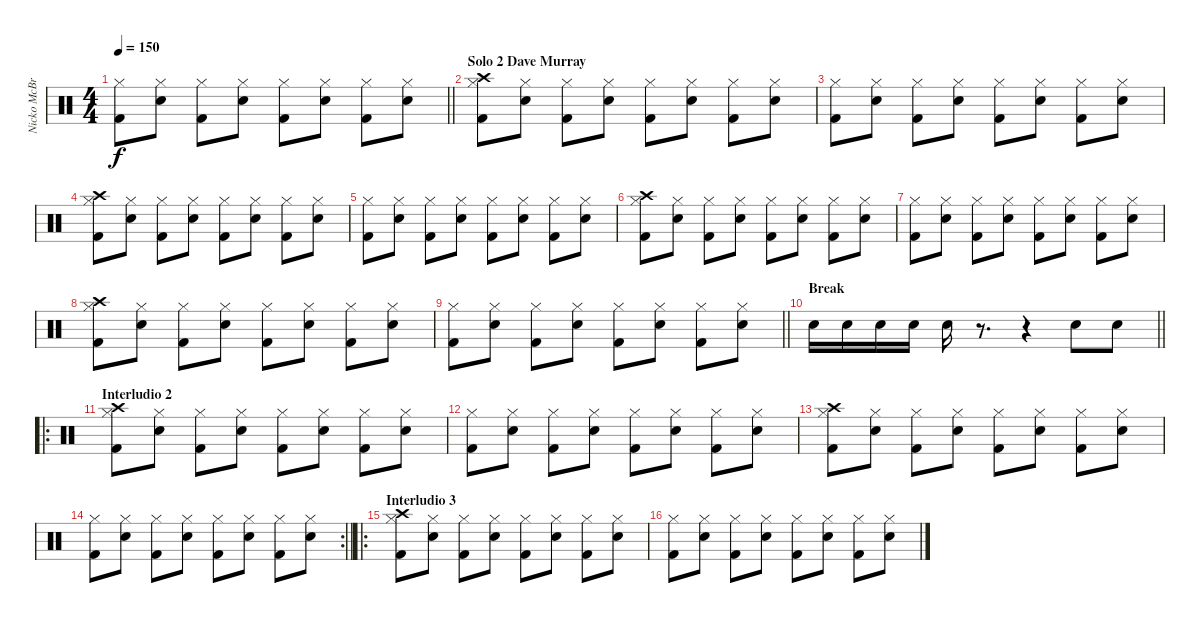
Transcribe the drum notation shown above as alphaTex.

\track ("Nicko McBrain" "Nicko McBr") {instrument percussion}
\staff {score}
\articulation defaults
\ts (4 4)
\tempo 150
\clef neutral
\barLineRight lightlight
\ks c
("Hi-Hat (closed)" "Kick (hit) 2").8{dy f} ("Hi-Hat (closed)" "Snare (hit) 2").8 ("Hi-Hat (closed)" "Kick (hit) 2").8 ("Hi-Hat (closed)" "Snare (hit) 2").8 ("Hi-Hat (closed)" "Kick (hit) 2").8 ("Hi-Hat (closed)" "Snare (hit) 2").8 ("Hi-Hat (closed)" "Kick (hit) 2").8 ("Hi-Hat (closed)" "Snare (hit) 2").8 |
\section ("" "Solo 2 Dave Murray")
("Hi-Hat (closed)" "Kick (hit) 2" "Crash high (hit)").8 ("Hi-Hat (closed)" "Snare (hit) 2").8 ("Hi-Hat (closed)" "Kick (hit) 2").8 ("Hi-Hat (closed)" "Snare (hit) 2").8 ("Hi-Hat (closed)" "Kick (hit) 2").8 ("Hi-Hat (closed)" "Snare (hit) 2").8 ("Hi-Hat (closed)" "Kick (hit) 2").8 ("Hi-Hat (closed)" "Snare (hit) 2").8 |
("Hi-Hat (closed)" "Kick (hit) 2").8 ("Hi-Hat (closed)" "Snare (hit) 2").8 ("Hi-Hat (closed)" "Kick (hit) 2").8 ("Hi-Hat (closed)" "Snare (hit) 2").8 ("Hi-Hat (closed)" "Kick (hit) 2").8 ("Hi-Hat (closed)" "Snare (hit) 2").8 ("Hi-Hat (closed)" "Kick (hit) 2").8 ("Hi-Hat (closed)" "Snare (hit) 2").8 |
("Hi-Hat (closed)" "Kick (hit) 2" "Crash high (hit)").8 ("Hi-Hat (closed)" "Snare (hit) 2").8 ("Hi-Hat (closed)" "Kick (hit) 2").8 ("Hi-Hat (closed)" "Snare (hit) 2").8 ("Hi-Hat (closed)" "Kick (hit) 2").8 ("Hi-Hat (closed)" "Snare (hit) 2").8 ("Hi-Hat (closed)" "Kick (hit) 2").8 ("Hi-Hat (closed)" "Snare (hit) 2").8 |
("Hi-Hat (closed)" "Kick (hit) 2").8 ("Hi-Hat (closed)" "Snare (hit) 2").8 ("Hi-Hat (closed)" "Kick (hit) 2").8 ("Hi-Hat (closed)" "Snare (hit) 2").8 ("Hi-Hat (closed)" "Kick (hit) 2").8 ("Hi-Hat (closed)" "Snare (hit) 2").8 ("Hi-Hat (closed)" "Kick (hit) 2").8 ("Hi-Hat (closed)" "Snare (hit) 2").8 |
("Hi-Hat (closed)" "Kick (hit) 2" "Crash high (hit)").8 ("Hi-Hat (closed)" "Snare (hit) 2").8 ("Hi-Hat (closed)" "Kick (hit) 2").8 ("Hi-Hat (closed)" "Snare (hit) 2").8 ("Hi-Hat (closed)" "Kick (hit) 2").8 ("Hi-Hat (closed)" "Snare (hit) 2").8 ("Hi-Hat (closed)" "Kick (hit) 2").8 ("Hi-Hat (closed)" "Snare (hit) 2").8 |
("Hi-Hat (closed)" "Kick (hit) 2").8 ("Hi-Hat (closed)" "Snare (hit) 2").8 ("Hi-Hat (closed)" "Kick (hit) 2").8 ("Hi-Hat (closed)" "Snare (hit) 2").8 ("Hi-Hat (closed)" "Kick (hit) 2").8 ("Hi-Hat (closed)" "Snare (hit) 2").8 ("Hi-Hat (closed)" "Kick (hit) 2").8 ("Hi-Hat (closed)" "Snare (hit) 2").8 |
("Hi-Hat (closed)" "Kick (hit) 2" "Crash high (hit)").8 ("Hi-Hat (closed)" "Snare (hit) 2").8 ("Hi-Hat (closed)" "Kick (hit) 2").8 ("Hi-Hat (closed)" "Snare (hit) 2").8 ("Hi-Hat (closed)" "Kick (hit) 2").8 ("Hi-Hat (closed)" "Snare (hit) 2").8 ("Hi-Hat (closed)" "Kick (hit) 2").8 ("Hi-Hat (closed)" "Snare (hit) 2").8 |
\barLineRight lightlight
("Hi-Hat (closed)" "Kick (hit) 2").8 ("Hi-Hat (closed)" "Snare (hit) 2").8 ("Hi-Hat (closed)" "Kick (hit) 2").8 ("Hi-Hat (closed)" "Snare (hit) 2").8 ("Hi-Hat (closed)" "Kick (hit) 2").8 ("Hi-Hat (closed)" "Snare (hit) 2").8 ("Hi-Hat (closed)" "Kick (hit) 2").8 ("Hi-Hat (closed)" "Snare (hit) 2").8 |
\section ("" "Break")
\barLineRight lightlight "Snare (hit) 2".16 "Snare (hit) 2".16 "Snare (hit) 2".16 "Snare (hit) 2".16 "Snare (hit) 2".16
r.8{d} r.4 "Snare (hit) 2".8 "Snare (hit) 2".8 |
\ro
\section ("" "Interludio 2")
("Hi-Hat (closed)" "Kick (hit) 2" "Crash high (hit)").8 ("Hi-Hat (closed)" "Snare (hit) 2").8 ("Hi-Hat (closed)" "Kick (hit) 2").8 ("Hi-Hat (closed)" "Snare (hit) 2").8 ("Hi-Hat (closed)" "Kick (hit) 2").8 ("Hi-Hat (closed)" "Snare (hit) 2").8 ("Hi-Hat (closed)" "Kick (hit) 2").8 ("Hi-Hat (closed)" "Snare (hit) 2").8 |
("Hi-Hat (closed)" "Kick (hit) 2").8 ("Hi-Hat (closed)" "Snare (hit) 2").8 ("Hi-Hat (closed)" "Kick (hit) 2").8 ("Hi-Hat (closed)" "Snare (hit) 2").8 ("Hi-Hat (closed)" "Kick (hit) 2").8 ("Hi-Hat (closed)" "Snare (hit) 2").8 ("Hi-Hat (closed)" "Kick (hit) 2").8 ("Hi-Hat (closed)" "Snare (hit) 2").8 |
("Hi-Hat (closed)" "Kick (hit) 2" "Crash high (hit)").8 ("Hi-Hat (closed)" "Snare (hit) 2").8 ("Hi-Hat (closed)" "Kick (hit) 2").8 ("Hi-Hat (closed)" "Snare (hit) 2").8 ("Hi-Hat (closed)" "Kick (hit) 2").8 ("Hi-Hat (closed)" "Snare (hit) 2").8 ("Hi-Hat (closed)" "Kick (hit) 2").8 ("Hi-Hat (closed)" "Snare (hit) 2").8 |
\rc 2
\barLineRight lightlight
("Hi-Hat (closed)" "Kick (hit) 2").8 ("Hi-Hat (closed)" "Snare (hit) 2").8 ("Hi-Hat (closed)" "Kick (hit) 2").8 ("Hi-Hat (closed)" "Snare (hit) 2").8 ("Hi-Hat (closed)" "Kick (hit) 2").8 ("Hi-Hat (closed)" "Snare (hit) 2").8 ("Hi-Hat (closed)" "Kick (hit) 2").8 ("Hi-Hat (closed)" "Snare (hit) 2").8 |
\ro
\section ("" "Interludio 3")
("Hi-Hat (closed)" "Kick (hit) 2" "Crash high (hit)").8 ("Hi-Hat (closed)" "Snare (hit) 2").8 ("Hi-Hat (closed)" "Kick (hit) 2").8 ("Hi-Hat (closed)" "Snare (hit) 2").8 ("Hi-Hat (closed)" "Kick (hit) 2").8 ("Hi-Hat (closed)" "Snare (hit) 2").8 ("Hi-Hat (closed)" "Kick (hit) 2").8 ("Hi-Hat (closed)" "Snare (hit) 2").8 |
("Hi-Hat (closed)" "Kick (hit) 2").8 ("Hi-Hat (closed)" "Snare (hit) 2").8 ("Hi-Hat (closed)" "Kick (hit) 2").8 ("Hi-Hat (closed)" "Snare (hit) 2").8 ("Hi-Hat (closed)" "Kick (hit) 2").8 ("Hi-Hat (closed)" "Snare (hit) 2").8 ("Hi-Hat (closed)" "Kick (hit) 2").8 ("Hi-Hat (closed)" "Snare (hit) 2").8
